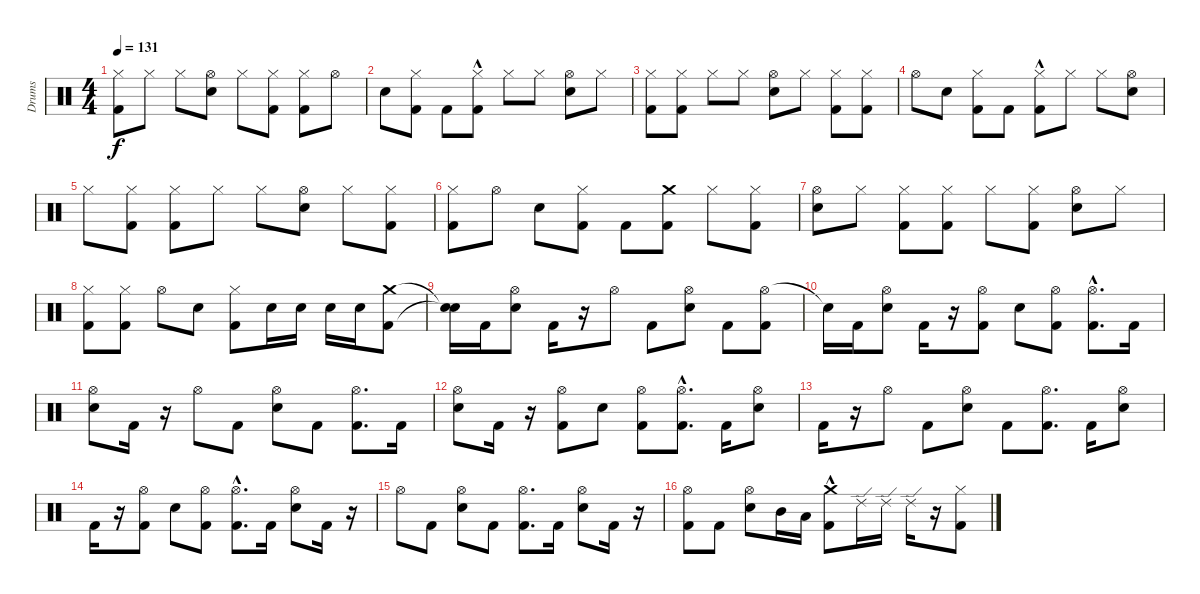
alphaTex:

\track ("Drums" "Drums") {instrument percussion}
\staff {score}
\articulation defaults
\ts (4 4)
\tempo 131
\clef neutral
\ks c
("Hi-Hat (closed)" "Kick (hit) 2").8{dy f} "Hi-Hat (closed)".8 "Hi-Hat (closed)".8 ("Hi-Hat (open)" "Electric Snare (hit)").8 "Hi-Hat (closed)".8 ("Hi-Hat (closed)" "Kick (hit) 2").8 ("Hi-Hat (closed)" "Kick (hit) 2").8 "Hi-Hat (open)".8 |
"Electric Snare (hit)".8 ("Hi-Hat (closed)" "Kick (hit) 2").8 "Kick (hit) 2".8 ("Hi-Hat (closed)" "Kick (hit) 2"{hac}).8 "Hi-Hat (closed)".8 "Hi-Hat (closed)".8 ("Hi-Hat (open)" "Electric Snare (hit)").8 "Hi-Hat (closed)".8 |
("Hi-Hat (closed)" "Kick (hit) 2").8 ("Hi-Hat (closed)" "Kick (hit) 2").8 "Hi-Hat (closed)".8 "Hi-Hat (closed)".8 ("Hi-Hat (open)" "Electric Snare (hit)").8 "Hi-Hat (closed)".8 ("Hi-Hat (closed)" "Kick (hit) 2").8 ("Hi-Hat (closed)" "Kick (hit) 2").8 |
"Hi-Hat (open)".8 "Electric Snare (hit)".8 ("Hi-Hat (closed)" "Kick (hit) 2").8 "Kick (hit) 2".8 ("Hi-Hat (closed)" "Kick (hit) 2"{hac}).8 "Hi-Hat (closed)".8 "Hi-Hat (closed)".8 ("Hi-Hat (open)" "Electric Snare (hit)").8 |
"Hi-Hat (closed)".8 ("Hi-Hat (closed)" "Kick (hit) 2").8 ("Hi-Hat (closed)" "Kick (hit) 2").8 "Hi-Hat (closed)".8 "Hi-Hat (closed)".8 ("Hi-Hat (open)" "Electric Snare (hit)").8 "Hi-Hat (closed)".8 ("Hi-Hat (closed)" "Kick (hit) 2").8 |
("Hi-Hat (closed)" "Kick (hit) 2").8 "Hi-Hat (open)".8 "Electric Snare (hit)".8 ("Hi-Hat (closed)" "Kick (hit) 2").8 "Kick (hit) 2".8 ("Crash medium (hit)" "Kick (hit) 2").8 "Hi-Hat (closed)".8 ("Kick (hit) 2" "Hi-Hat (closed)").8 |
("Hi-Hat (open)" "Electric Snare (hit)").8 "Hi-Hat (closed)".8 ("Hi-Hat (closed)" "Kick (hit) 2").8 ("Hi-Hat (closed)" "Kick (hit) 2").8 "Hi-Hat (closed)".8 ("Kick (hit) 2" "Hi-Hat (closed)").8 ("Hi-Hat (open)" "Electric Snare (hit)").8 "Hi-Hat (closed)".8 |
("Hi-Hat (closed)" "Kick (hit) 2").8 ("Hi-Hat (closed)" "Kick (hit) 2").8 "Hi-Hat (open)".8 "Electric Snare (hit)".8 ("Hi-Hat (closed)" "Kick (hit) 2").8 "Electric Snare (hit)".16 "Electric Snare (hit)".16 "Electric Snare (hit)".16 "Electric Snare (hit)".16 ("Crash medium (hit)" "Kick (hit) 2").8 |
("Snare (hit)"{t} "Snare (hit)"{t}).16 "Kick (hit) 2".16 ("Hi-Hat (open)" "Electric Snare (hit)").8 "Kick (hit) 2".16 r.16 "Hi-Hat (open)".8 "Kick (hit) 2".8 ("Hi-Hat (open)" "Electric Snare (hit)").8 "Kick (hit) 2".8 ("Hi-Hat (open)" "Kick (hit) 2").8 |
"Snare (hit)"{t}.16 "Kick (hit) 2".16 ("Electric Snare (hit)" "Hi-Hat (open)").8 "Kick (hit) 2".16 r.16 ("Kick (hit) 2" "Hi-Hat (open)").8 "Electric Snare (hit)".8 ("Kick (hit) 2" "Hi-Hat (open)").8 ("Hi-Hat (open)" "Kick (hit) 2"{hac}).8{d} "Kick (hit) 2".16 |
("Hi-Hat (open)" "Electric Snare (hit)").8 "Kick (hit) 2".16 r.16 "Hi-Hat (open)".8 "Kick (hit) 2".8 ("Hi-Hat (open)" "Electric Snare (hit)").8 "Kick (hit) 2".8 ("Hi-Hat (open)" "Kick (hit) 2").8{d} "Kick (hit) 2".16 |
("Electric Snare (hit)" "Hi-Hat (open)").8 "Kick (hit) 2".16 r.16 ("Kick (hit) 2" "Hi-Hat (open)").8 "Electric Snare (hit)".8 ("Kick (hit) 2" "Hi-Hat (open)").8 ("Hi-Hat (open)" "Kick (hit) 2"{hac}).8{d} "Kick (hit) 2".16 ("Hi-Hat (open)" "Electric Snare (hit)").8 |
"Kick (hit) 2".16 r.16 "Hi-Hat (open)".8 "Kick (hit) 2".8 ("Hi-Hat (open)" "Electric Snare (hit)").8 "Kick (hit) 2".8 ("Hi-Hat (open)" "Kick (hit) 2").8{d} "Kick (hit) 2".16 ("Electric Snare (hit)" "Hi-Hat (open)").8 |
"Kick (hit) 2".16 r.16 ("Kick (hit) 2" "Hi-Hat (open)").8 "Electric Snare (hit)".8 ("Kick (hit) 2" "Hi-Hat (open)").8 ("Hi-Hat (open)" "Kick (hit) 2"{hac}).8{d} "Kick (hit) 2".16 ("Hi-Hat (open)" "Electric Snare (hit)").8 "Kick (hit) 2".16 r.16 |
"Hi-Hat (open)".8 "Kick (hit) 2".8 ("Hi-Hat (open)" "Electric Snare (hit)").8 "Kick (hit) 2".8 ("Hi-Hat (open)" "Kick (hit) 2").8{d} "Kick (hit) 2".16 ("Electric Snare (hit)" "Hi-Hat (open)").8 "Kick (hit) 2".16 r.16 |
("Kick (hit) 2" "Hi-Hat (open)").8 "Kick (hit) 2".8 ("Electric Snare (hit)" "Hi-Hat (open)").8 "Mid Tom (hit)".16 "Low Tom (hit)".16 ("Crash medium (hit)" "Kick (hit) 2"{hac}).8 "Ride (edge) 2".16 "Ride (edge) 2".16 "Ride (edge) 2".16 r.16 ("Hi-Hat (closed)" "Kick (hit) 2").8
